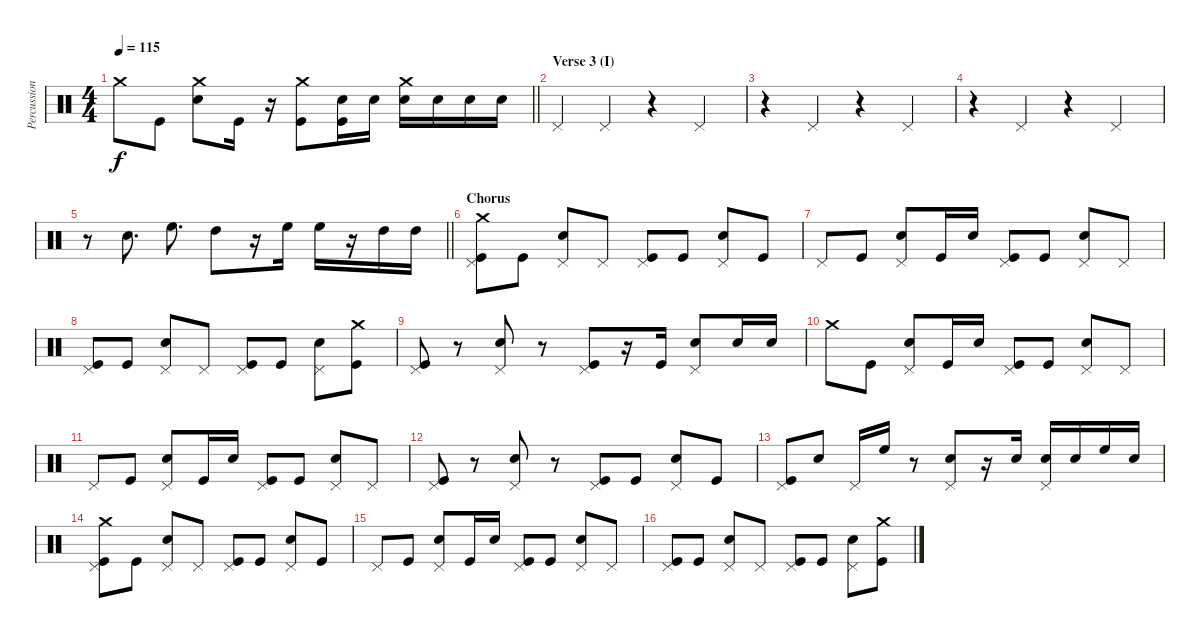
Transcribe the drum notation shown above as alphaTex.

\track ("Percussion" "Percussion") {instrument percussion}
\staff {score}
\articulation defaults
\ts (4 4)
\tempo 115
\clef neutral
\barLineRight lightlight
\ks c "Crash medium (hit)".8{dy f} "Kick (hit)".8
("Crash medium (hit)" "Snare (hit) 2").8 "Kick (hit)".16 r.16 ("Crash medium (hit)" "Kick (hit)").8 ("Snare (hit) 2" "Kick (hit)").16 "Snare (hit) 2".16 ("Crash medium (hit)" "Snare (hit) 2").16 "Snare (hit) 2".16 "Snare (hit) 2".16 "Snare (hit) 2".16 |
\section ("" "Verse 3 (I)")
"Pedal Hi-Hat (hit)".4 "Pedal Hi-Hat (hit)".4 r.4 "Pedal Hi-Hat (hit)".4 |
r.4 "Pedal Hi-Hat (hit)".4 r.4 "Pedal Hi-Hat (hit)".4 |
r.4 "Pedal Hi-Hat (hit)".4 r.4 "Pedal Hi-Hat (hit)".4 |
\barLineRight lightlight
r.8 "Snare (hit) 2".8{d} "High Floor Tom (hit)".8{d} "High Tom (hit)".8 r.16 "High Floor Tom (hit)".16 "High Floor Tom (hit)".16 r.16 "High Tom (hit)".16 "High Tom (hit)".16 |
\section ("" "Chorus")
("Crash medium (hit)" "Pedal Hi-Hat (hit)" "Kick (hit)").8 "Kick (hit)".8 ("Pedal Hi-Hat (hit)" "Snare (hit) 2").8 "Pedal Hi-Hat (hit)".8 ("Pedal Hi-Hat (hit)" "Kick (hit)").8 "Kick (hit)".8 ("Pedal Hi-Hat (hit)" "Snare (hit) 2").8 "Kick (hit)".8 |
"Pedal Hi-Hat (hit)".8 "Kick (hit)".8 ("Pedal Hi-Hat (hit)" "Snare (hit) 2").8 "Kick (hit)".16 "Snare (hit) 2".16 ("Pedal Hi-Hat (hit)" "Kick (hit)").8 "Kick (hit)".8 ("Pedal Hi-Hat (hit)" "Snare (hit) 2").8 "Pedal Hi-Hat (hit)".8 |
("Pedal Hi-Hat (hit)" "Kick (hit)").8 "Kick (hit)".8 ("Pedal Hi-Hat (hit)" "Snare (hit) 2").8 "Pedal Hi-Hat (hit)".8 ("Pedal Hi-Hat (hit)" "Kick (hit)").8 "Kick (hit)".8 ("Pedal Hi-Hat (hit)" "Snare (hit) 2").8 ("Crash medium (hit)" "Kick (hit)").8 |
("Pedal Hi-Hat (hit)" "Kick (hit)").8 r.8 ("Pedal Hi-Hat (hit)" "Snare (hit) 2").8 r.8 ("Pedal Hi-Hat (hit)" "Kick (hit)").8 r.16 "Kick (hit)".16 ("Pedal Hi-Hat (hit)" "Snare (hit) 2").8 "Snare (hit) 2".16 "Snare (hit) 2".16 |
"Crash medium (hit)".8 "Kick (hit)".8 ("Pedal Hi-Hat (hit)" "Snare (hit) 2").8 "Kick (hit)".16 "Snare (hit) 2".16 ("Pedal Hi-Hat (hit)" "Kick (hit)").8 "Kick (hit)".8 ("Pedal Hi-Hat (hit)" "Snare (hit) 2").8 "Pedal Hi-Hat (hit)".8 |
"Pedal Hi-Hat (hit)".8 "Kick (hit)".8 ("Pedal Hi-Hat (hit)" "Snare (hit) 2").8 "Kick (hit)".16 "Snare (hit) 2".16 ("Pedal Hi-Hat (hit)" "Kick (hit)").8 "Kick (hit)".8 ("Pedal Hi-Hat (hit)" "Snare (hit) 2").8 "Pedal Hi-Hat (hit)".8 |
("Pedal Hi-Hat (hit)" "Kick (hit)").8 r.8 ("Pedal Hi-Hat (hit)" "Snare (hit) 2").8 r.8 ("Pedal Hi-Hat (hit)" "Kick (hit)").8 "Kick (hit)".8 ("Pedal Hi-Hat (hit)" "Snare (hit) 2").8 "Kick (hit)".8 |
("Pedal Hi-Hat (hit)" "Kick (hit)").8 "Snare (hit) 2".8 "Pedal Hi-Hat (hit)".16 "High Floor Tom (hit)".16 r.8 ("Pedal Hi-Hat (hit)" "Snare (hit) 2").8 r.16 "Snare (hit) 2".16 ("Pedal Hi-Hat (hit)" "Snare (hit) 2").16 "Snare (hit) 2".16 "High Floor Tom (hit)".16 "Snare (hit) 2".16 |
("Crash medium (hit)" "Pedal Hi-Hat (hit)" "Kick (hit)").8 "Kick (hit)".8 ("Pedal Hi-Hat (hit)" "Snare (hit) 2").8 "Pedal Hi-Hat (hit)".8 ("Pedal Hi-Hat (hit)" "Kick (hit)").8 "Kick (hit)".8 ("Pedal Hi-Hat (hit)" "Snare (hit) 2").8 "Kick (hit)".8 |
"Pedal Hi-Hat (hit)".8 "Kick (hit)".8 ("Pedal Hi-Hat (hit)" "Snare (hit) 2").8 "Kick (hit)".16 "Snare (hit) 2".16 ("Pedal Hi-Hat (hit)" "Kick (hit)").8 "Kick (hit)".8 ("Pedal Hi-Hat (hit)" "Snare (hit) 2").8 "Pedal Hi-Hat (hit)".8 |
("Pedal Hi-Hat (hit)" "Kick (hit)").8 "Kick (hit)".8 ("Pedal Hi-Hat (hit)" "Snare (hit) 2").8 "Pedal Hi-Hat (hit)".8 ("Pedal Hi-Hat (hit)" "Kick (hit)").8 "Kick (hit)".8 ("Pedal Hi-Hat (hit)" "Snare (hit) 2").8 ("Crash medium (hit)" "Kick (hit)").8
